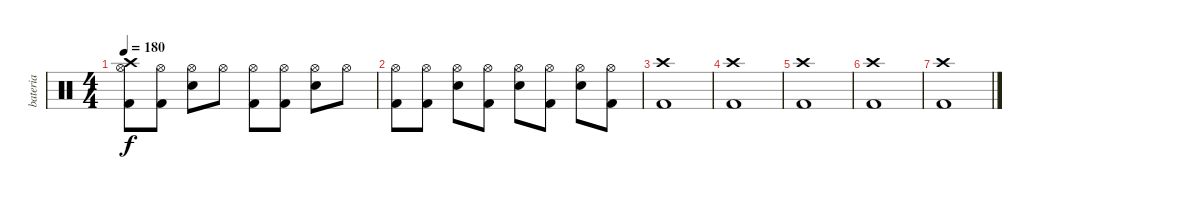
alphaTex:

\track ("bateria" "bateria") {instrument percussion}
\staff {score}
\articulation defaults
\ts (4 4)
\tempo 180
\clef neutral
\ks c
("Hi-Hat (open)" "Kick (hit) 2" "Crash high (hit)").8{dy f} ("Hi-Hat (open)"{x} "Kick (hit) 2").8 ("Hi-Hat (open)" "Electric Snare (hit)").8 "Hi-Hat (open)"{x}.8 ("Hi-Hat (open)" "Kick (hit) 2").8 ("Hi-Hat (open)"{x} "Kick (hit) 2").8 ("Hi-Hat (open)" "Electric Snare (hit)").8 "Hi-Hat (open)"{x}.8 |
("Hi-Hat (open)" "Kick (hit) 2").8 ("Hi-Hat (open)"{x} "Kick (hit) 2").8 ("Hi-Hat (open)" "Electric Snare (hit)").8 ("Hi-Hat (open)"{x} "Kick (hit) 2").8 ("Hi-Hat (open)" "Electric Snare (hit)").8 ("Hi-Hat (open)"{x} "Kick (hit) 2").8 ("Hi-Hat (open)" "Electric Snare (hit)").8 ("Hi-Hat (open)"{x} "Kick (hit) 2").8 |
("Crash high (hit)" "Kick (hit) 2").1 |
("Crash high (hit)" "Kick (hit) 2").1 |
("Crash high (hit)" "Kick (hit) 2").1 |
("Crash high (hit)" "Kick (hit) 2").1 |
("Crash high (hit)" "Kick (hit) 2").1
